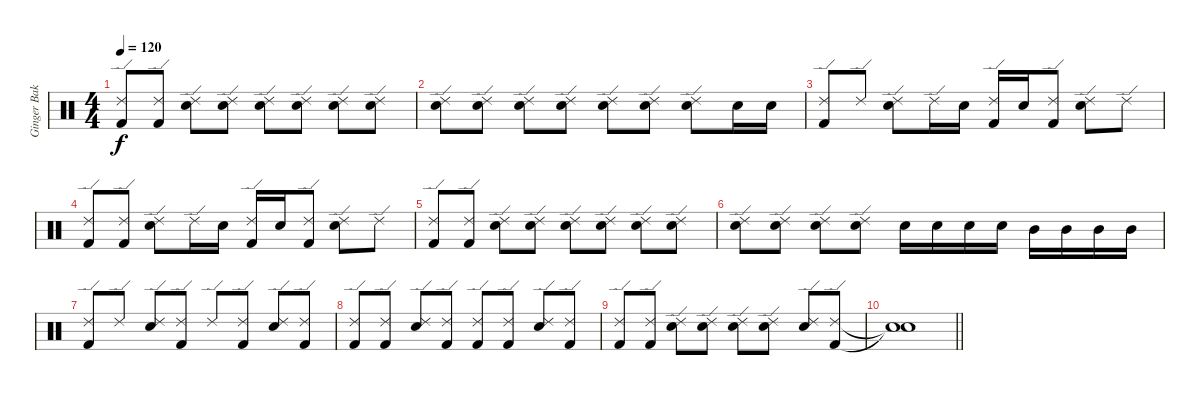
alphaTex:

\track ("Ginger Baker Drums" "Ginger Bak") {instrument percussion}
\staff {score}
\articulation defaults
\ts (4 4)
\tempo 120
\clef neutral
\ks c
("Ride (edge) 2" "Kick (hit) 2").8{dy f} ("Ride (edge) 2" "Kick (hit) 2").8 ("Ride (edge) 2" "Snare (hit) 2").8 ("Ride (edge) 2" "Snare (hit) 2").8 ("Ride (edge) 2" "Snare (hit) 2").8 ("Ride (edge) 2" "Snare (hit) 2").8 ("Ride (edge) 2" "Snare (hit) 2").8 ("Ride (edge) 2" "Snare (hit) 2").8 |
("Ride (edge) 2" "Snare (hit) 2").8 ("Ride (edge) 2" "Snare (hit) 2").8 ("Ride (edge) 2" "Snare (hit) 2").8 ("Ride (edge) 2" "Snare (hit) 2").8 ("Ride (edge) 2" "Snare (hit)").8 ("Ride (edge) 2" "Snare (hit) 2").8 ("Ride (edge) 2" "Snare (hit) 2").8 "Snare (hit) 2".16 "Snare (hit) 2".16 |
("Ride (edge) 2" "Kick (hit) 2").8 "Ride (edge) 2".8 ("Ride (edge) 2" "Snare (hit) 2").8 "Ride (edge) 2".16 "Snare (hit) 2".16 ("Ride (edge) 2" "Kick (hit) 2").16 "Snare (hit) 2".16 ("Ride (edge) 2" "Kick (hit) 2").8 ("Ride (edge) 2" "Snare (hit) 2").8 "Ride (edge) 2".8 |
("Ride (edge) 2" "Kick (hit) 2").8 ("Ride (edge) 2" "Kick (hit) 2").8 ("Ride (edge) 2" "Snare (hit) 2").8 "Ride (edge) 2".16 "Snare (hit) 2".16 ("Ride (edge) 2" "Kick (hit) 2").16 "Snare (hit) 2".16 ("Ride (edge) 2" "Kick (hit) 2").8 ("Ride (edge) 2" "Snare (hit) 2").8 "Ride (edge) 2".8 |
("Ride (edge) 2" "Kick (hit) 2").8 ("Ride (edge) 2" "Kick (hit) 2").8 ("Ride (edge) 2" "Snare (hit) 2").8 ("Ride (edge) 2" "Snare (hit) 2").8 ("Ride (edge) 2" "Snare (hit) 2").8 ("Ride (edge) 2" "Snare (hit) 2").8 ("Ride (edge) 2" "Snare (hit) 2").8 ("Ride (edge) 2" "Snare (hit) 2").8 |
("Ride (edge) 2" "Snare (hit) 2").8 ("Ride (edge) 2" "Snare (hit) 2").8 ("Ride (edge) 2" "Snare (hit) 2").8 ("Ride (edge) 2" "Snare (hit) 2").8 "Snare (hit) 2".16 "Snare (hit) 2".16 "Snare (hit) 2".16 "Snare (hit) 2".16 "Mid Tom (hit)".16 "Mid Tom (hit)".16 "Mid Tom (hit)".16 "Mid Tom (hit)".16 |
("Ride (edge) 2" "Kick (hit) 2").8 "Ride (edge) 2".8 ("Ride (edge) 2" "Snare (hit) 2").8 ("Ride (edge) 2" "Kick (hit) 2").8 "Ride (edge) 2".8 ("Ride (edge) 2" "Kick (hit) 2").8 ("Ride (edge) 2" "Snare (hit) 2").8 ("Ride (edge) 2" "Kick (hit) 2").8 |
("Ride (edge) 2" "Kick (hit) 2").8 ("Ride (edge) 2" "Kick (hit) 2").8 ("Ride (edge) 2" "Snare (hit) 2").8 ("Ride (edge) 2" "Kick (hit) 2").8 ("Ride (edge) 2" "Kick (hit) 2").8 ("Ride (edge) 2" "Kick (hit) 2").8 ("Ride (edge) 2" "Snare (hit) 2").8 ("Ride (edge) 2" "Kick (hit) 2").8 |
("Ride (edge) 2" "Kick (hit) 2").8 ("Ride (edge) 2" "Kick (hit) 2").8 ("Ride (edge) 2" "Snare (hit) 2").8 ("Ride (edge) 2" "Snare (hit) 2").8 ("Ride (edge) 2" "Snare (hit) 2").8 ("Ride (edge) 2" "Snare (hit) 2").8 ("Ride (edge) 2" "Snare (hit) 2").8 ("Ride (edge) 2" "Kick (hit) 2").8 |
\barLineRight lightlight
("Snare (hit)"{t} "Snare (hit)"{t}).1
